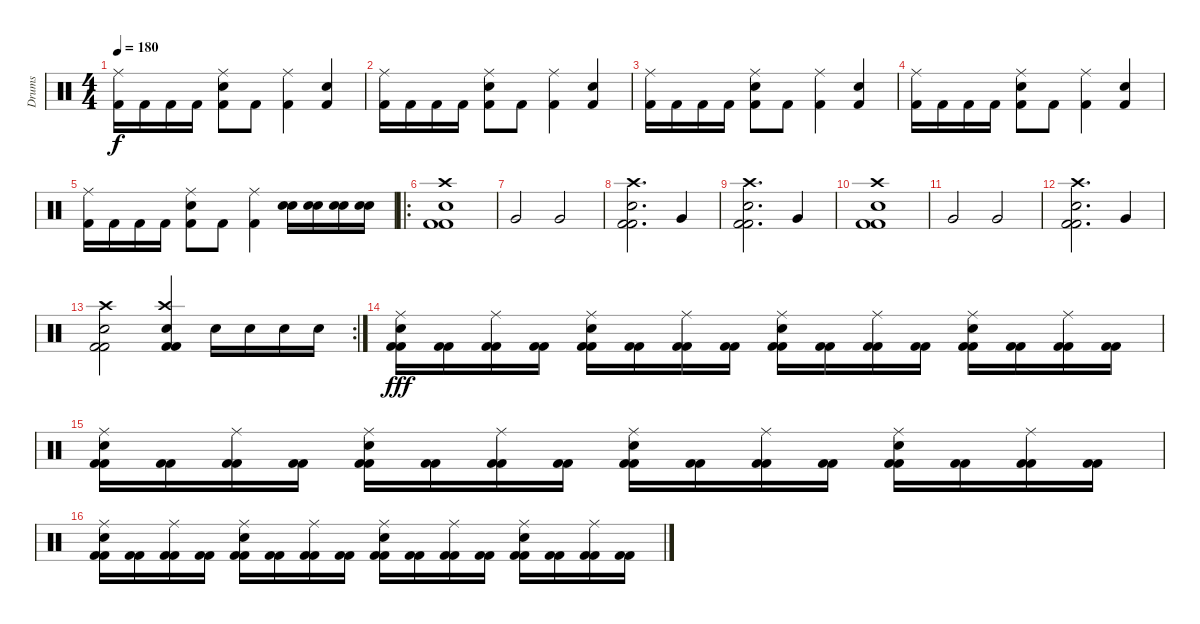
\track ("Drums" "Drums") {instrument percussion}
\staff {score}
\articulation defaults
\ts (4 4)
\tempo 180
\clef neutral
\ks c
("Ride (middle)" "Kick (hit) 2").16{dy f} "Kick (hit) 2".16 "Kick (hit) 2".16 "Kick (hit) 2".16 ("Ride (middle)" "Snare (hit) 2" "Kick (hit) 2").8 "Kick (hit) 2".8 ("Ride (middle)" "Kick (hit) 2").4 ("Snare (hit) 2" "Kick (hit) 2").4 |
("Ride (middle)" "Kick (hit) 2").16 "Kick (hit) 2".16 "Kick (hit) 2".16 "Kick (hit) 2".16 ("Ride (middle)" "Snare (hit) 2" "Kick (hit) 2").8 "Kick (hit) 2".8 ("Ride (middle)" "Kick (hit) 2").4 ("Snare (hit) 2" "Kick (hit) 2").4 |
("Ride (middle)" "Kick (hit) 2").16 "Kick (hit) 2".16 "Kick (hit) 2".16 "Kick (hit) 2".16 ("Ride (middle)" "Snare (hit) 2" "Kick (hit) 2").8 "Kick (hit) 2".8 ("Ride (middle)" "Kick (hit) 2").4 ("Snare (hit) 2" "Kick (hit) 2").4 |
("Ride (middle)" "Kick (hit) 2").16 "Kick (hit) 2".16 "Kick (hit) 2".16 "Kick (hit) 2".16 ("Ride (middle)" "Snare (hit) 2" "Kick (hit) 2").8 "Kick (hit) 2".8 ("Ride (middle)" "Kick (hit) 2").4 ("Snare (hit) 2" "Kick (hit) 2").4 |
("Ride (middle)" "Kick (hit) 2").16 "Kick (hit) 2".16 "Kick (hit) 2".16 "Kick (hit) 2".16 ("Ride (middle)" "Snare (hit) 2" "Kick (hit) 2").8 "Kick (hit) 2".8 ("Ride (middle)" "Kick (hit) 2").4 ("Snare (hit) 2" "Snare (hit) 2").16 ("Snare (hit) 2" "Snare (hit) 2").16 ("Snare (hit) 2" "Snare (hit) 2").16 ("Snare (hit) 2" "Snare (hit) 2").16 |
\ro
("Crash high (hit)" "Snare (hit) 2" "Kick (hit) 2" "Kick (hit) 2").1 |
"Very Low Tom (hit)".2 "Very Low Tom (hit)".2 |
("Crash high (hit)" "Snare (hit) 2" "Kick (hit) 2" "Kick (hit) 2").2{d} "Very Low Tom (hit)".4 |
("Crash high (hit)" "Snare (hit) 2" "Kick (hit) 2" "Kick (hit) 2").2{d} "Very Low Tom (hit)".4 |
("Crash high (hit)" "Snare (hit) 2" "Kick (hit) 2" "Kick (hit) 2").1 |
"Very Low Tom (hit)".2 "Very Low Tom (hit)".2 |
("Crash high (hit)" "Snare (hit) 2" "Kick (hit) 2" "Kick (hit) 2").2{d} "Very Low Tom (hit)".4 |
\rc 2
("Crash high (hit)" "Snare (hit) 2" "Kick (hit) 2" "Kick (hit) 2").2 ("Crash high (hit)" "Electric Snare (hit)" "Kick (hit) 2" "Kick (hit) 2").4 "Snare (hit) 2".16 "Snare (hit) 2".16 "Snare (hit) 2".16 "Snare (hit) 2".16 |
("Kick (hit) 2" "Kick (hit) 2" "Electric Snare (hit)" "Ride (middle)").16{dy fff} ("Kick (hit) 2" "Kick (hit) 2").16 ("Kick (hit) 2" "Kick (hit) 2" "Ride (middle)").16 ("Kick (hit) 2" "Kick (hit) 2").16 ("Kick (hit) 2" "Kick (hit) 2" "Electric Snare (hit)" "Ride (middle)").16 ("Kick (hit) 2" "Kick (hit) 2").16 ("Kick (hit) 2" "Kick (hit) 2" "Ride (middle)").16 ("Kick (hit) 2" "Kick (hit) 2").16 ("Kick (hit) 2" "Kick (hit) 2" "Electric Snare (hit)" "Ride (middle)").16 ("Kick (hit) 2" "Kick (hit) 2").16 ("Kick (hit) 2" "Kick (hit) 2" "Ride (middle)").16 ("Kick (hit) 2" "Kick (hit) 2").16 ("Kick (hit) 2" "Kick (hit) 2" "Electric Snare (hit)" "Ride (middle)").16 ("Kick (hit) 2" "Kick (hit) 2").16 ("Kick (hit) 2" "Kick (hit) 2" "Ride (middle)").16 ("Kick (hit) 2" "Kick (hit) 2").16 |
("Kick (hit) 2" "Kick (hit) 2" "Electric Snare (hit)" "Ride (middle)").16 ("Kick (hit) 2" "Kick (hit) 2").16 ("Kick (hit) 2" "Kick (hit) 2" "Ride (middle)").16 ("Kick (hit) 2" "Kick (hit) 2").16 ("Kick (hit) 2" "Kick (hit) 2" "Electric Snare (hit)" "Ride (middle)").16 ("Kick (hit) 2" "Kick (hit) 2").16 ("Kick (hit) 2" "Kick (hit) 2" "Ride (middle)").16 ("Kick (hit) 2" "Kick (hit) 2").16 ("Kick (hit) 2" "Kick (hit) 2" "Electric Snare (hit)" "Ride (middle)").16 ("Kick (hit) 2" "Kick (hit) 2").16 ("Kick (hit) 2" "Kick (hit) 2" "Ride (middle)").16 ("Kick (hit) 2" "Kick (hit) 2").16 ("Kick (hit) 2" "Kick (hit) 2" "Electric Snare (hit)" "Ride (middle)").16 ("Kick (hit) 2" "Kick (hit) 2").16 ("Kick (hit) 2" "Kick (hit) 2" "Ride (middle)").16 ("Kick (hit) 2" "Kick (hit) 2").16 |
("Kick (hit) 2" "Kick (hit) 2" "Electric Snare (hit)" "Ride (middle)").16 ("Kick (hit) 2" "Kick (hit) 2").16 ("Kick (hit) 2" "Kick (hit) 2" "Ride (middle)").16 ("Kick (hit) 2" "Kick (hit) 2").16 ("Kick (hit) 2" "Kick (hit) 2" "Electric Snare (hit)" "Ride (middle)").16 ("Kick (hit) 2" "Kick (hit) 2").16 ("Kick (hit) 2" "Kick (hit) 2" "Ride (middle)").16 ("Kick (hit) 2" "Kick (hit) 2").16 ("Kick (hit) 2" "Kick (hit) 2" "Electric Snare (hit)" "Ride (middle)").16 ("Kick (hit) 2" "Kick (hit) 2").16 ("Kick (hit) 2" "Kick (hit) 2" "Ride (middle)").16 ("Kick (hit) 2" "Kick (hit) 2").16 ("Kick (hit) 2" "Kick (hit) 2" "Electric Snare (hit)" "Ride (middle)").16 ("Kick (hit) 2" "Kick (hit) 2").16 ("Kick (hit) 2" "Kick (hit) 2" "Ride (middle)").16 ("Kick (hit) 2" "Kick (hit) 2").16
